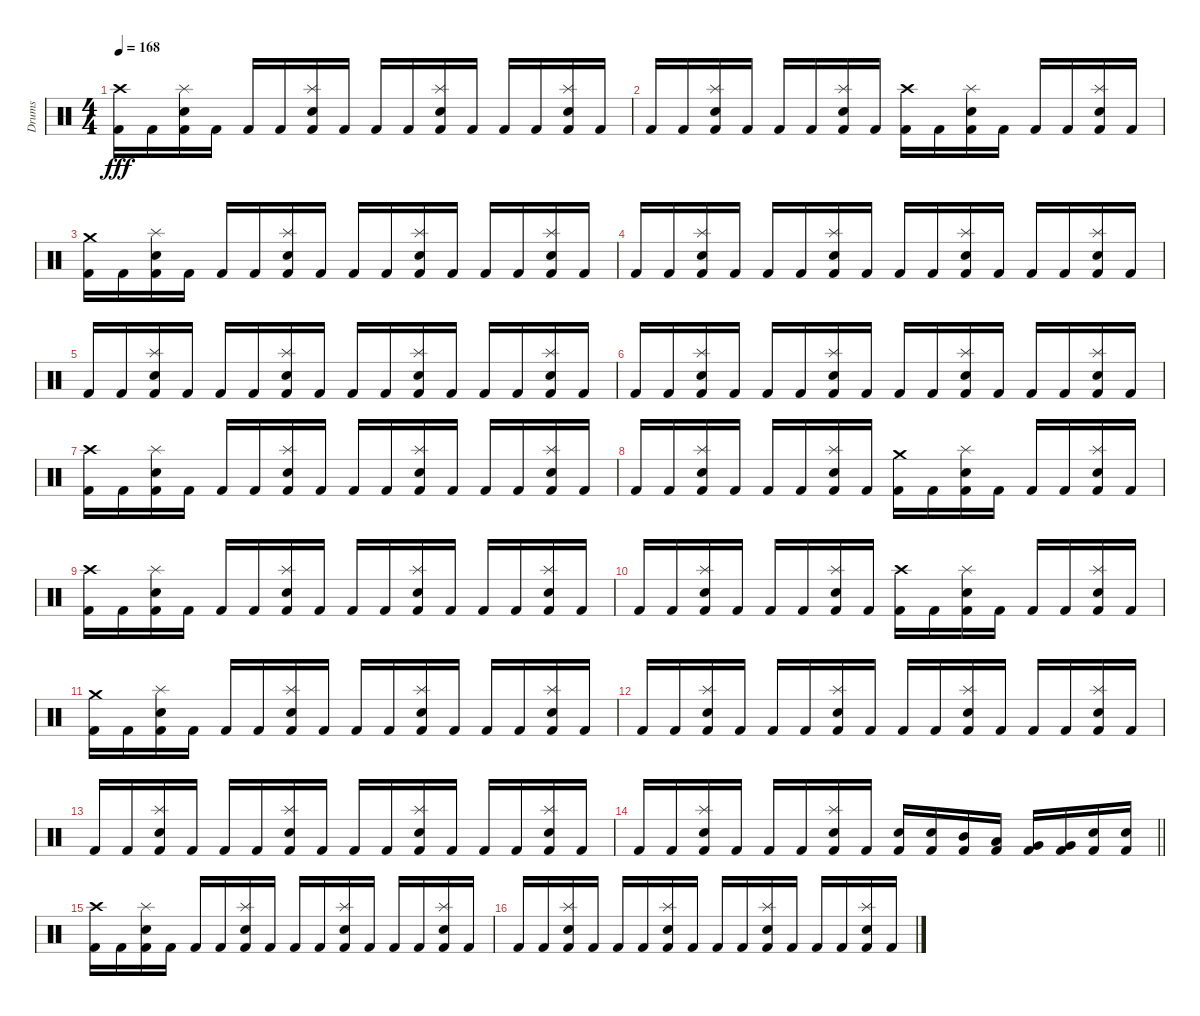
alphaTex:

\track ("Drums" "Drums") {instrument percussion}
\staff {score}
\articulation defaults
\ts (4 4)
\tempo 168
\clef neutral
\ks c
("Crash high (hit)" "Kick (hit) 2").16{dy fff} "Kick (hit) 2".16 ("Splash (hit)" "Snare (hit) 2" "Kick (hit) 2").16 "Kick (hit) 2".16 "Kick (hit) 2".16 "Kick (hit) 2".16 ("Splash (hit)" "Snare (hit) 2" "Kick (hit) 2").16 "Kick (hit) 2".16 "Kick (hit) 2".16 "Kick (hit) 2".16 ("Splash (hit)" "Snare (hit) 2" "Kick (hit) 2").16 "Kick (hit) 2".16 "Kick (hit) 2".16 "Kick (hit) 2".16 ("Splash (hit)" "Snare (hit) 2" "Kick (hit) 2").16 "Kick (hit) 2".16 |
"Kick (hit) 2".16 "Kick (hit) 2".16 ("Splash (hit)" "Snare (hit) 2" "Kick (hit) 2").16 "Kick (hit) 2".16 "Kick (hit) 2".16 "Kick (hit) 2".16 ("Splash (hit)" "Snare (hit) 2" "Kick (hit) 2").16 "Kick (hit) 2".16 ("Crash high (hit)" "Kick (hit) 2").16 "Kick (hit) 2".16 ("Splash (hit)" "Snare (hit) 2" "Kick (hit) 2").16 "Kick (hit) 2".16 "Kick (hit) 2".16 "Kick (hit) 2".16 ("Splash (hit)" "Snare (hit) 2" "Kick (hit) 2").16 "Kick (hit) 2".16 |
("Crash medium (hit)" "Kick (hit) 2").16 "Kick (hit) 2".16 ("Splash (hit)" "Snare (hit) 2" "Kick (hit) 2").16 "Kick (hit) 2".16 "Kick (hit) 2".16 "Kick (hit) 2".16 ("Splash (hit)" "Snare (hit) 2" "Kick (hit) 2").16 "Kick (hit) 2".16 "Kick (hit) 2".16 "Kick (hit) 2".16 ("Splash (hit)" "Snare (hit) 2" "Kick (hit) 2").16 "Kick (hit) 2".16 "Kick (hit) 2".16 "Kick (hit) 2".16 ("Splash (hit)" "Snare (hit) 2" "Kick (hit) 2").16 "Kick (hit) 2".16 |
"Kick (hit) 2".16 "Kick (hit) 2".16 ("Splash (hit)" "Snare (hit) 2" "Kick (hit) 2").16 "Kick (hit) 2".16 "Kick (hit) 2".16 "Kick (hit) 2".16 ("Splash (hit)" "Snare (hit) 2" "Kick (hit) 2").16 "Kick (hit) 2".16 "Kick (hit) 2".16 "Kick (hit) 2".16 ("Splash (hit)" "Snare (hit) 2" "Kick (hit) 2").16 "Kick (hit) 2".16 "Kick (hit) 2".16 "Kick (hit) 2".16 ("Splash (hit)" "Snare (hit) 2" "Kick (hit) 2").16 "Kick (hit) 2".16 |
"Kick (hit) 2".16 "Kick (hit) 2".16 ("Splash (hit)" "Snare (hit) 2" "Kick (hit) 2").16 "Kick (hit) 2".16 "Kick (hit) 2".16 "Kick (hit) 2".16 ("Splash (hit)" "Snare (hit) 2" "Kick (hit) 2").16 "Kick (hit) 2".16 "Kick (hit) 2".16 "Kick (hit) 2".16 ("Splash (hit)" "Snare (hit) 2" "Kick (hit) 2").16 "Kick (hit) 2".16 "Kick (hit) 2".16 "Kick (hit) 2".16 ("Splash (hit)" "Snare (hit) 2" "Kick (hit) 2").16 "Kick (hit) 2".16 |
"Kick (hit) 2".16 "Kick (hit) 2".16 ("Splash (hit)" "Snare (hit) 2" "Kick (hit) 2").16 "Kick (hit) 2".16 "Kick (hit) 2".16 "Kick (hit) 2".16 ("Splash (hit)" "Snare (hit) 2" "Kick (hit) 2").16 "Kick (hit) 2".16 "Kick (hit) 2".16 "Kick (hit) 2".16 ("Splash (hit)" "Snare (hit) 2" "Kick (hit) 2").16 "Kick (hit) 2".16 "Kick (hit) 2".16 "Kick (hit) 2".16 ("Splash (hit)" "Snare (hit) 2" "Kick (hit) 2").16 "Kick (hit) 2".16 |
("Crash high (hit)" "Kick (hit) 2").16 "Kick (hit) 2".16 ("Splash (hit)" "Snare (hit) 2" "Kick (hit) 2").16 "Kick (hit) 2".16 "Kick (hit) 2".16 "Kick (hit) 2".16 ("Splash (hit)" "Snare (hit) 2" "Kick (hit) 2").16 "Kick (hit) 2".16 "Kick (hit) 2".16 "Kick (hit) 2".16 ("Splash (hit)" "Snare (hit) 2" "Kick (hit) 2").16 "Kick (hit) 2".16 "Kick (hit) 2".16 "Kick (hit) 2".16 ("Splash (hit)" "Snare (hit) 2" "Kick (hit) 2").16 "Kick (hit) 2".16 |
"Kick (hit) 2".16 "Kick (hit) 2".16 ("Splash (hit)" "Snare (hit) 2" "Kick (hit) 2").16 "Kick (hit) 2".16 "Kick (hit) 2".16 "Kick (hit) 2".16 ("Splash (hit)" "Snare (hit) 2" "Kick (hit) 2").16 "Kick (hit) 2".16 ("Crash medium (hit)" "Kick (hit) 2").16 "Kick (hit) 2".16 ("Splash (hit)" "Snare (hit) 2" "Kick (hit) 2").16 "Kick (hit) 2".16 "Kick (hit) 2".16 "Kick (hit) 2".16 ("Splash (hit)" "Snare (hit) 2" "Kick (hit) 2").16 "Kick (hit) 2".16 |
("Crash high (hit)" "Kick (hit) 2").16 "Kick (hit) 2".16 ("Splash (hit)" "Snare (hit) 2" "Kick (hit) 2").16 "Kick (hit) 2".16 "Kick (hit) 2".16 "Kick (hit) 2".16 ("Splash (hit)" "Snare (hit) 2" "Kick (hit) 2").16 "Kick (hit) 2".16 "Kick (hit) 2".16 "Kick (hit) 2".16 ("Splash (hit)" "Snare (hit) 2" "Kick (hit) 2").16 "Kick (hit) 2".16 "Kick (hit) 2".16 "Kick (hit) 2".16 ("Splash (hit)" "Snare (hit) 2" "Kick (hit) 2").16 "Kick (hit) 2".16 |
"Kick (hit) 2".16 "Kick (hit) 2".16 ("Splash (hit)" "Snare (hit) 2" "Kick (hit) 2").16 "Kick (hit) 2".16 "Kick (hit) 2".16 "Kick (hit) 2".16 ("Splash (hit)" "Snare (hit) 2" "Kick (hit) 2").16 "Kick (hit) 2".16 ("Crash high (hit)" "Kick (hit) 2").16 "Kick (hit) 2".16 ("Splash (hit)" "Snare (hit) 2" "Kick (hit) 2").16 "Kick (hit) 2".16 "Kick (hit) 2".16 "Kick (hit) 2".16 ("Splash (hit)" "Snare (hit) 2" "Kick (hit) 2").16 "Kick (hit) 2".16 |
("Crash medium (hit)" "Kick (hit) 2").16 "Kick (hit) 2".16 ("Splash (hit)" "Snare (hit) 2" "Kick (hit) 2").16 "Kick (hit) 2".16 "Kick (hit) 2".16 "Kick (hit) 2".16 ("Splash (hit)" "Snare (hit) 2" "Kick (hit) 2").16 "Kick (hit) 2".16 "Kick (hit) 2".16 "Kick (hit) 2".16 ("Splash (hit)" "Snare (hit) 2" "Kick (hit) 2").16 "Kick (hit) 2".16 "Kick (hit) 2".16 "Kick (hit) 2".16 ("Splash (hit)" "Snare (hit) 2" "Kick (hit) 2").16 "Kick (hit) 2".16 |
"Kick (hit) 2".16 "Kick (hit) 2".16 ("Splash (hit)" "Snare (hit) 2" "Kick (hit) 2").16 "Kick (hit) 2".16 "Kick (hit) 2".16 "Kick (hit) 2".16 ("Splash (hit)" "Snare (hit) 2" "Kick (hit) 2").16 "Kick (hit) 2".16 "Kick (hit) 2".16 "Kick (hit) 2".16 ("Splash (hit)" "Snare (hit) 2" "Kick (hit) 2").16 "Kick (hit) 2".16 "Kick (hit) 2".16 "Kick (hit) 2".16 ("Splash (hit)" "Snare (hit) 2" "Kick (hit) 2").16 "Kick (hit) 2".16 |
"Kick (hit) 2".16 "Kick (hit) 2".16 ("Splash (hit)" "Snare (hit) 2" "Kick (hit) 2").16 "Kick (hit) 2".16 "Kick (hit) 2".16 "Kick (hit) 2".16 ("Splash (hit)" "Snare (hit) 2" "Kick (hit) 2").16 "Kick (hit) 2".16 "Kick (hit) 2".16 "Kick (hit) 2".16 ("Splash (hit)" "Snare (hit) 2" "Kick (hit) 2").16 "Kick (hit) 2".16 "Kick (hit) 2".16 "Kick (hit) 2".16 ("Splash (hit)" "Snare (hit) 2" "Kick (hit) 2").16 "Kick (hit) 2".16 |
\barLineRight lightlight "Kick (hit) 2".16 "Kick (hit) 2".16
("Splash (hit)" "Snare (hit) 2" "Kick (hit) 2").16 "Kick (hit) 2".16 "Kick (hit) 2".16 "Kick (hit) 2".16 ("Splash (hit)" "Snare (hit) 2" "Kick (hit) 2").16 "Kick (hit) 2".16 ("Snare (hit) 2" "Kick (hit) 2").16 ("Snare (hit) 2" "Kick (hit) 2").16 ("Mid Tom (hit)" "Kick (hit) 2").16 ("Low Tom (hit)" "Kick (hit) 2").16 ("Very Low Tom (hit)" "Kick (hit) 2").16 ("Very Low Tom (hit)" "Kick (hit) 2").16 ("Snare (hit) 2" "Kick (hit) 2").16 ("Snare (hit) 2" "Kick (hit) 2").16 |
("Crash high (hit)" "Kick (hit) 2").16 "Kick (hit) 2".16 ("Splash (hit)" "Snare (hit) 2" "Kick (hit) 2").16 "Kick (hit) 2".16 "Kick (hit) 2".16 "Kick (hit) 2".16 ("Splash (hit)" "Snare (hit) 2" "Kick (hit) 2").16 "Kick (hit) 2".16 "Kick (hit) 2".16 "Kick (hit) 2".16 ("Splash (hit)" "Snare (hit) 2" "Kick (hit) 2").16 "Kick (hit) 2".16 "Kick (hit) 2".16 "Kick (hit) 2".16 ("Splash (hit)" "Snare (hit) 2" "Kick (hit) 2").16 "Kick (hit) 2".16 |
"Kick (hit) 2".16 "Kick (hit) 2".16 ("Splash (hit)" "Snare (hit) 2" "Kick (hit) 2").16 "Kick (hit) 2".16 "Kick (hit) 2".16 "Kick (hit) 2".16 ("Splash (hit)" "Snare (hit) 2" "Kick (hit) 2").16 "Kick (hit) 2".16 "Kick (hit) 2".16 "Kick (hit) 2".16 ("Splash (hit)" "Snare (hit) 2" "Kick (hit) 2").16 "Kick (hit) 2".16 "Kick (hit) 2".16 "Kick (hit) 2".16 ("Splash (hit)" "Snare (hit) 2" "Kick (hit) 2").16 "Kick (hit) 2".16
